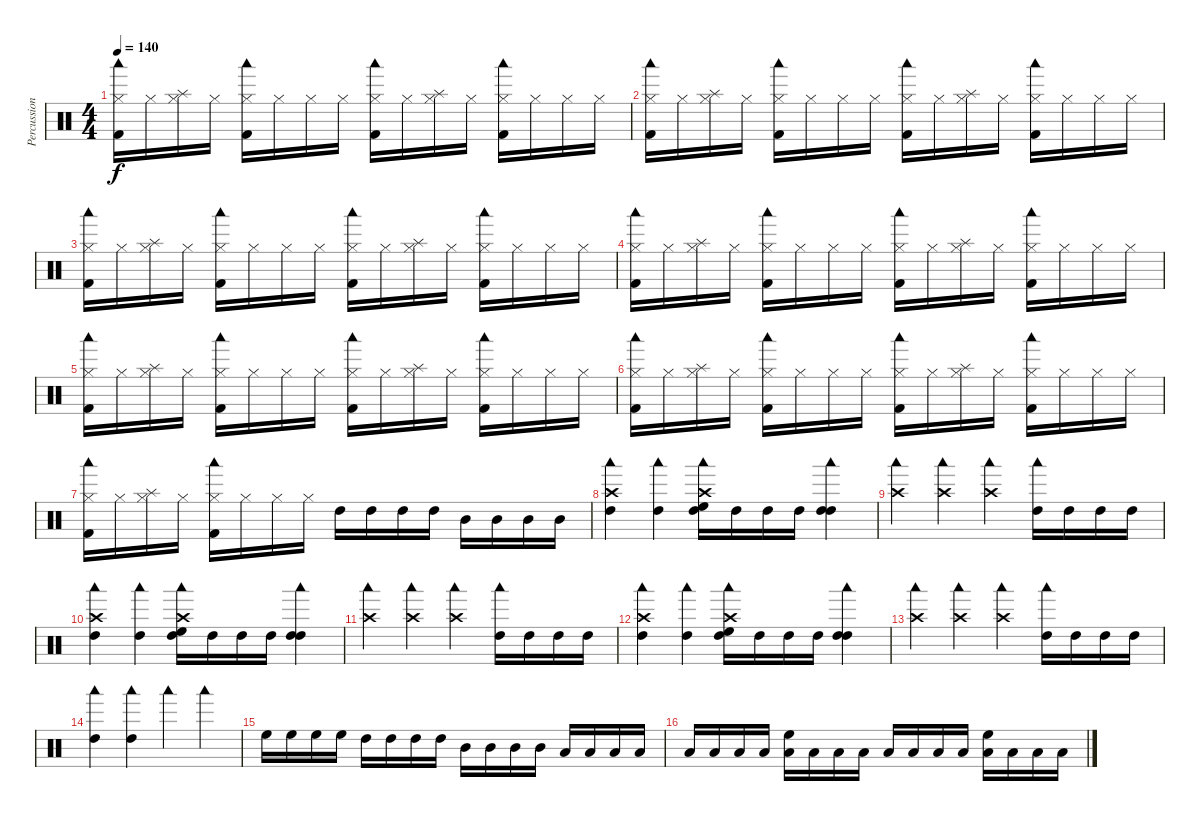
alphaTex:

\track ("Percussion" "Percussion") {instrument percussion}
\staff {score}
\articulation defaults
\ts (4 4)
\tempo 140
\clef neutral
\ks c
("Woodblock low (hit)" "Hi-Hat (closed)" "Kick (hit) 2").16{dy f} "Hi-Hat (closed)".16 ("Splash (hit)" "Hi-Hat (closed)").16 "Hi-Hat (closed)".16 ("Woodblock low (hit)" "Hi-Hat (closed)" "Kick (hit) 2").16 "Hi-Hat (closed)".16 "Hi-Hat (closed)".16 "Hi-Hat (closed)".16 ("Woodblock low (hit)" "Hi-Hat (closed)" "Kick (hit) 2").16 "Hi-Hat (closed)".16 ("Splash (hit)" "Hi-Hat (closed)").16 "Hi-Hat (closed)".16 ("Woodblock low (hit)" "Hi-Hat (closed)" "Kick (hit) 2").16 "Hi-Hat (closed)".16 "Hi-Hat (closed)".16 "Hi-Hat (closed)".16 |
("Woodblock low (hit)" "Hi-Hat (closed)" "Kick (hit) 2").16 "Hi-Hat (closed)".16 ("Splash (hit)" "Hi-Hat (closed)").16 "Hi-Hat (closed)".16 ("Woodblock low (hit)" "Hi-Hat (closed)" "Kick (hit) 2").16 "Hi-Hat (closed)".16 "Hi-Hat (closed)".16 "Hi-Hat (closed)".16 ("Woodblock low (hit)" "Hi-Hat (closed)" "Kick (hit) 2").16 "Hi-Hat (closed)".16 ("Splash (hit)" "Hi-Hat (closed)").16 "Hi-Hat (closed)".16 ("Woodblock low (hit)" "Hi-Hat (closed)" "Kick (hit) 2").16 "Hi-Hat (closed)".16 "Hi-Hat (closed)".16 "Hi-Hat (closed)".16 |
("Woodblock low (hit)" "Hi-Hat (closed)" "Kick (hit) 2").16 "Hi-Hat (closed)".16 ("Splash (hit)" "Hi-Hat (closed)").16 "Hi-Hat (closed)".16 ("Woodblock low (hit)" "Hi-Hat (closed)" "Kick (hit) 2").16 "Hi-Hat (closed)".16 "Hi-Hat (closed)".16 "Hi-Hat (closed)".16 ("Woodblock low (hit)" "Hi-Hat (closed)" "Kick (hit) 2").16 "Hi-Hat (closed)".16 ("Splash (hit)" "Hi-Hat (closed)").16 "Hi-Hat (closed)".16 ("Woodblock low (hit)" "Hi-Hat (closed)" "Kick (hit) 2").16 "Hi-Hat (closed)".16 "Hi-Hat (closed)".16 "Hi-Hat (closed)".16 |
("Woodblock low (hit)" "Hi-Hat (closed)" "Kick (hit) 2").16 "Hi-Hat (closed)".16 ("Splash (hit)" "Hi-Hat (closed)").16 "Hi-Hat (closed)".16 ("Woodblock low (hit)" "Hi-Hat (closed)" "Kick (hit) 2").16 "Hi-Hat (closed)".16 "Hi-Hat (closed)".16 "Hi-Hat (closed)".16 ("Woodblock low (hit)" "Hi-Hat (closed)" "Kick (hit) 2").16 "Hi-Hat (closed)".16 ("Splash (hit)" "Hi-Hat (closed)").16 "Hi-Hat (closed)".16 ("Woodblock low (hit)" "Hi-Hat (closed)" "Kick (hit) 2").16 "Hi-Hat (closed)".16 "Hi-Hat (closed)".16 "Hi-Hat (closed)".16 |
("Woodblock low (hit)" "Hi-Hat (closed)" "Kick (hit) 2").16 "Hi-Hat (closed)".16 ("Splash (hit)" "Hi-Hat (closed)").16 "Hi-Hat (closed)".16 ("Woodblock low (hit)" "Hi-Hat (closed)" "Kick (hit) 2").16 "Hi-Hat (closed)".16 "Hi-Hat (closed)".16 "Hi-Hat (closed)".16 ("Woodblock low (hit)" "Hi-Hat (closed)" "Kick (hit) 2").16 "Hi-Hat (closed)".16 ("Splash (hit)" "Hi-Hat (closed)").16 "Hi-Hat (closed)".16 ("Woodblock low (hit)" "Hi-Hat (closed)" "Kick (hit) 2").16 "Hi-Hat (closed)".16 "Hi-Hat (closed)".16 "Hi-Hat (closed)".16 |
("Woodblock low (hit)" "Hi-Hat (closed)" "Kick (hit) 2").16 "Hi-Hat (closed)".16 ("Splash (hit)" "Hi-Hat (closed)").16 "Hi-Hat (closed)".16 ("Woodblock low (hit)" "Hi-Hat (closed)" "Kick (hit) 2").16 "Hi-Hat (closed)".16 "Hi-Hat (closed)".16 "Hi-Hat (closed)".16 ("Woodblock low (hit)" "Hi-Hat (closed)" "Kick (hit) 2").16 "Hi-Hat (closed)".16 ("Splash (hit)" "Hi-Hat (closed)").16 "Hi-Hat (closed)".16 ("Woodblock low (hit)" "Hi-Hat (closed)" "Kick (hit) 2").16 "Hi-Hat (closed)".16 "Hi-Hat (closed)".16 "Hi-Hat (closed)".16 |
("Woodblock low (hit)" "Hi-Hat (closed)" "Kick (hit) 2").16 "Hi-Hat (closed)".16 ("Splash (hit)" "Hi-Hat (closed)").16 "Hi-Hat (closed)".16 ("Woodblock low (hit)" "Hi-Hat (closed)" "Kick (hit) 2").16 "Hi-Hat (closed)".16 "Hi-Hat (closed)".16 "Hi-Hat (closed)".16 "High Tom (hit)".16 "High Tom (hit)".16 "High Tom (hit)".16 "High Tom (hit)".16 "Mid Tom (hit)".16 "Mid Tom (hit)".16 "Mid Tom (hit)".16 "Mid Tom (hit)".16 |
("Crash high (hit)" "Woodblock low (hit)" "High Tom (hit)").4 ("Woodblock low (hit)" "High Tom (hit)").4 ("Crash high (hit)" "Woodblock low (hit)" "High Floor Tom (hit)" "High Tom (hit)").16 "High Tom (hit)".16 "High Tom (hit)".16 "High Tom (hit)".16 ("Woodblock low (hit)" "High Tom (hit)" "High Tom (hit)").4 |
("Crash high (hit)" "Woodblock low (hit)").4 ("Crash high (hit)" "Woodblock low (hit)").4 ("Crash high (hit)" "Woodblock low (hit)").4 ("Woodblock low (hit)" "High Tom (hit)").16 "High Tom (hit)".16 "High Tom (hit)".16 "High Tom (hit)".16 |
("Crash high (hit)" "Woodblock low (hit)" "High Tom (hit)").4 ("Woodblock low (hit)" "High Tom (hit)").4 ("Crash high (hit)" "Woodblock low (hit)" "High Floor Tom (hit)" "High Tom (hit)").16 "High Tom (hit)".16 "High Tom (hit)".16 "High Tom (hit)".16 ("Woodblock low (hit)" "High Tom (hit)" "High Tom (hit)").4 |
("Crash high (hit)" "Woodblock low (hit)").4 ("Crash high (hit)" "Woodblock low (hit)").4 ("Crash high (hit)" "Woodblock low (hit)").4 ("Woodblock low (hit)" "High Tom (hit)").16 "High Tom (hit)".16 "High Tom (hit)".16 "High Tom (hit)".16 |
("Crash high (hit)" "Woodblock low (hit)" "High Tom (hit)").4 ("Woodblock low (hit)" "High Tom (hit)").4 ("Crash high (hit)" "Woodblock low (hit)" "High Floor Tom (hit)" "High Tom (hit)").16 "High Tom (hit)".16 "High Tom (hit)".16 "High Tom (hit)".16 ("Woodblock low (hit)" "High Tom (hit)" "High Tom (hit)").4 |
("Crash high (hit)" "Woodblock low (hit)").4 ("Crash high (hit)" "Woodblock low (hit)").4 ("Crash high (hit)" "Woodblock low (hit)").4 ("Woodblock low (hit)" "High Tom (hit)").16 "High Tom (hit)".16 "High Tom (hit)".16 "High Tom (hit)".16 |
("Woodblock low (hit)" "High Tom (hit)").4 ("Woodblock low (hit)" "High Tom (hit)").4 "Woodblock low (hit)".4 "Woodblock low (hit)".4 |
"High Floor Tom (hit)".16 "High Floor Tom (hit)".16 "High Floor Tom (hit)".16 "High Floor Tom (hit)".16 "High Tom (hit)".16 "High Tom (hit)".16 "High Tom (hit)".16 "High Tom (hit)".16 "Mid Tom (hit)".16 "Mid Tom (hit)".16 "Mid Tom (hit)".16 "Mid Tom (hit)".16 "Low Tom (hit)".16 "Low Tom (hit)".16 "Low Tom (hit)".16 "Low Tom (hit)".16 |
"Low Tom (hit)".16 "Low Tom (hit)".16 "Low Tom (hit)".16 "Low Tom (hit)".16 ("High Floor Tom (hit)" "Low Tom (hit)").16 "Low Tom (hit)".16 "Low Tom (hit)".16 "Low Tom (hit)".16 "Low Tom (hit)".16 "Low Tom (hit)".16 "Low Tom (hit)".16 "Low Tom (hit)".16 ("High Floor Tom (hit)" "Low Tom (hit)").16 "Low Tom (hit)".16 "Low Tom (hit)".16 "Low Tom (hit)".16
